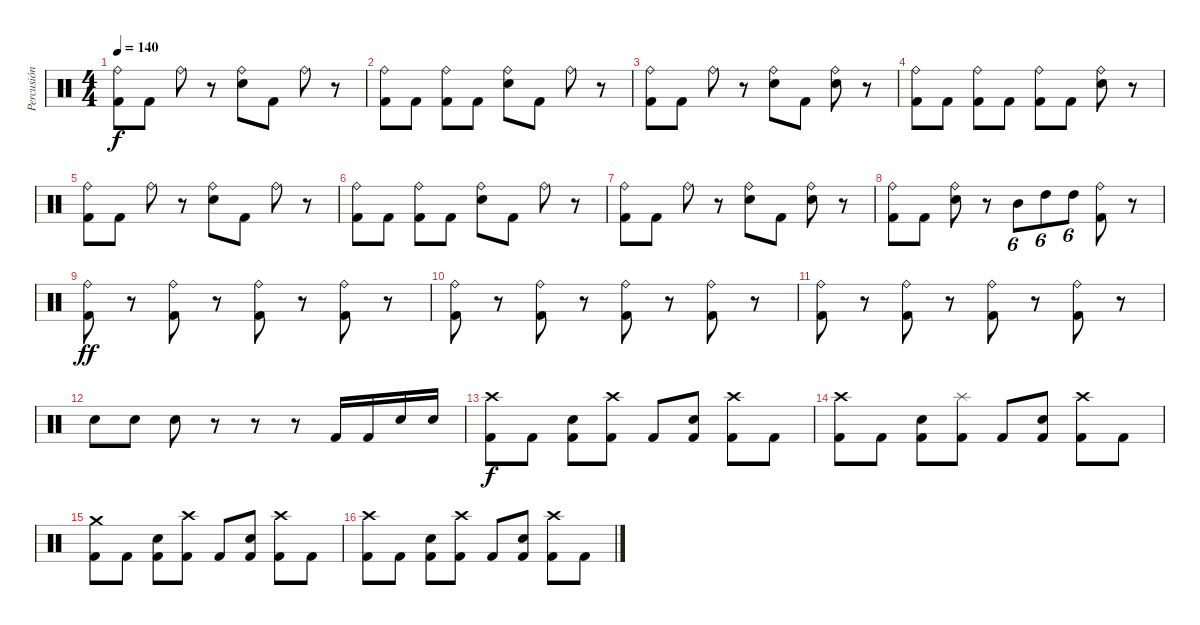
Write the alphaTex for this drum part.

\track ("Percusión" "Percusión") {instrument percussion}
\staff {score}
\articulation defaults
\ts (4 4)
\tempo 140
\clef neutral
\ks c
("Ride (bell)" "Kick (hit) 2").8{dy f} "Kick (hit) 2".8 "Ride (bell)".8 r.8 ("Ride (bell)" "Snare (hit) 2").8 "Kick (hit) 2".8 "Ride (bell)".8 r.8 |
("Ride (bell)" "Kick (hit) 2").8 "Kick (hit) 2".8 ("Ride (bell)" "Kick (hit) 2").8 "Kick (hit) 2".8 ("Ride (bell)" "Snare (hit) 2").8 "Kick (hit) 2".8 "Ride (bell)".8 r.8 |
("Ride (bell)" "Kick (hit) 2").8 "Kick (hit) 2".8 "Ride (bell)".8 r.8 ("Ride (bell)" "Snare (hit) 2").8 "Kick (hit) 2".8 ("Ride (bell)" "Snare (hit) 2").8 r.8 |
("Ride (bell)" "Kick (hit) 2").8 "Kick (hit) 2".8 ("Ride (bell)" "Kick (hit) 2").8 "Kick (hit) 2".8 ("Ride (bell)" "Kick (hit) 2").8 "Kick (hit) 2".8 ("Ride (bell)" "Snare (hit) 2").8 r.8 |
("Ride (bell)" "Kick (hit) 2").8 "Kick (hit) 2".8 "Ride (bell)".8 r.8 ("Ride (bell)" "Snare (hit) 2").8 "Kick (hit) 2".8 "Ride (bell)".8 r.8 |
("Ride (bell)" "Kick (hit) 2").8 "Kick (hit) 2".8 ("Ride (bell)" "Kick (hit) 2").8 "Kick (hit) 2".8 ("Ride (bell)" "Snare (hit) 2").8 "Kick (hit) 2".8 "Ride (bell)".8 r.8 |
("Ride (bell)" "Kick (hit) 2").8 "Kick (hit) 2".8 "Ride (bell)".8 r.8 ("Ride (bell)" "Snare (hit) 2").8 "Kick (hit) 2".8 ("Ride (bell)" "Snare (hit) 2").8 r.8 |
("Ride (bell)" "Kick (hit) 2").8 "Kick (hit) 2".8 ("Ride (bell)" "Snare (hit) 2").8 r.8 "Mid Tom (hit)".8{tu (6 4)} "High Tom (hit)".8{tu (6 4)} "High Tom (hit)".8{tu (6 4)} ("Ride (bell)" "Kick (hit) 2").8 r.8 |
("Ride (bell)" "Kick (hit) 2").8{dy ff} r.8 ("Ride (bell)" "Kick (hit) 2").8 r.8 ("Ride (bell)" "Kick (hit) 2").8 r.8 ("Ride (bell)" "Kick (hit) 2").8 r.8 |
("Ride (bell)" "Kick (hit) 2").8 r.8 ("Ride (bell)" "Kick (hit) 2").8 r.8 ("Ride (bell)" "Kick (hit) 2").8 r.8 ("Ride (bell)" "Kick (hit) 2").8 r.8 |
("Ride (bell)" "Kick (hit) 2").8 r.8 ("Ride (bell)" "Kick (hit) 2").8 r.8 ("Ride (bell)" "Kick (hit) 2").8 r.8 ("Ride (bell)" "Kick (hit) 2").8 r.8 |
"Snare (hit) 2".8 "Snare (hit) 2".8 "Snare (hit) 2".8 r.8 r.8 r.8 "Kick (hit) 2".16 "Kick (hit) 2".16 "Snare (hit) 2".16 "Snare (hit) 2".16 |
("Crash high (hit)" "Kick (hit) 2").8{dy f} "Kick (hit) 2".8 ("Kick (hit) 2" "Snare (hit) 2").8 ("Crash high (hit)" "Kick (hit) 2").8 "Kick (hit) 2".8 ("Kick (hit) 2" "Snare (hit) 2").8 ("Crash high (hit)" "Kick (hit) 2").8 "Kick (hit) 2".8 |
("Crash high (hit)" "Kick (hit) 2").8 "Kick (hit) 2".8 ("Kick (hit) 2" "Snare (hit) 2").8 ("Splash (hit)" "Kick (hit) 2").8 "Kick (hit) 2".8 ("Kick (hit) 2" "Snare (hit) 2").8 ("Crash high (hit)" "Kick (hit) 2").8 "Kick (hit) 2".8 |
("Crash medium (hit)" "Kick (hit) 2").8 "Kick (hit) 2".8 ("Kick (hit) 2" "Snare (hit) 2").8 ("Crash high (hit)" "Kick (hit) 2").8 "Kick (hit) 2".8 ("Kick (hit) 2" "Snare (hit) 2").8 ("Crash high (hit)" "Kick (hit) 2").8 "Kick (hit) 2".8 |
("Crash high (hit)" "Kick (hit) 2").8 "Kick (hit) 2".8 ("Kick (hit) 2" "Snare (hit) 2").8 ("Crash high (hit)" "Kick (hit) 2").8 "Kick (hit) 2".8 ("Kick (hit) 2" "Snare (hit) 2").8 ("Crash high (hit)" "Kick (hit) 2").8 "Kick (hit) 2".8
